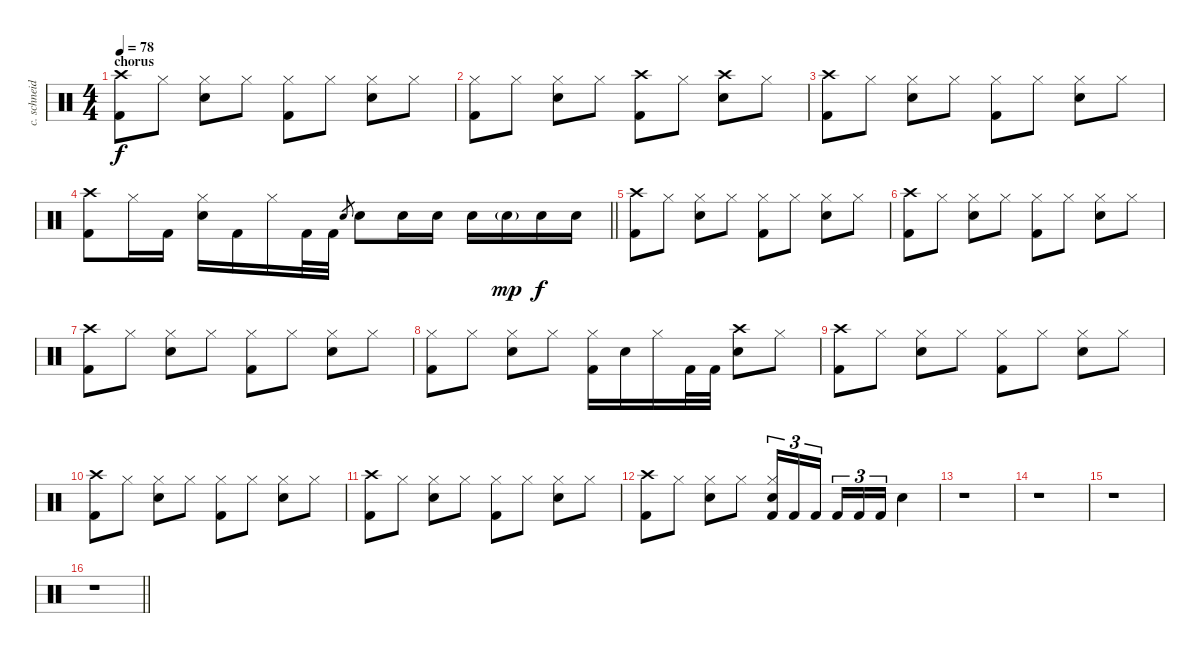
\track ("c. schneider - drums" "c. schneid") {instrument percussion}
\staff {score}
\articulation defaults
\ts (4 4)
\section ("" "chorus")
\tempo 78
\clef neutral
\ks c
("Crash high (hit)" "Kick (hit) 2").8{dy f} "Hi-Hat (closed)".8 ("Hi-Hat (closed)" "Snare (hit) 2").8 "Hi-Hat (closed)".8 ("Hi-Hat (closed)" "Kick (hit) 2").8 "Hi-Hat (closed)".8 ("Hi-Hat (closed)" "Snare (hit) 2").8 "Hi-Hat (closed)".8 |
("Hi-Hat (closed)" "Kick (hit) 2").8 "Hi-Hat (closed)".8 ("Hi-Hat (closed)" "Snare (hit) 2").8 "Hi-Hat (closed)".8 ("Crash high (hit)" "Kick (hit) 2").8 "Hi-Hat (closed)".8 ("Crash high (hit)" "Snare (hit) 2").8 "Hi-Hat (closed)".8 |
("Crash high (hit)" "Kick (hit) 2").8 "Hi-Hat (closed)".8 ("Hi-Hat (closed)" "Snare (hit) 2").8 "Hi-Hat (closed)".8 ("Hi-Hat (closed)" "Kick (hit) 2").8 "Hi-Hat (closed)".8 ("Hi-Hat (closed)" "Snare (hit) 2").8 "Hi-Hat (closed)".8 |
\barLineRight lightlight
("Crash high (hit)" "Kick (hit) 2").8 "Hi-Hat (closed)".16 "Kick (hit) 2".16 ("Hi-Hat (closed)" "Snare (hit) 2").16 "Kick (hit) 2".16 "Hi-Hat (closed)".16 "Kick (hit) 2".32 "Kick (hit) 2".32 "Snare (hit) 2".8{gr} "Snare (hit) 2".8 "Snare (hit) 2".16 "Snare (hit) 2".16 "Snare (hit) 2".16 "Snare (hit) 2"{g}.16{dy mp} "Snare (hit) 2".16{dy f} "Snare (hit) 2".16 |
("Crash high (hit)" "Kick (hit) 2").8 "Hi-Hat (closed)".8 ("Hi-Hat (closed)" "Snare (hit) 2").8 "Hi-Hat (closed)".8 ("Hi-Hat (closed)" "Kick (hit) 2").8 "Hi-Hat (closed)".8 ("Hi-Hat (closed)" "Snare (hit) 2").8 "Hi-Hat (closed)".8 |
("Crash high (hit)" "Kick (hit) 2").8 "Hi-Hat (closed)".8 ("Hi-Hat (closed)" "Snare (hit) 2").8 "Hi-Hat (closed)".8 ("Hi-Hat (closed)" "Kick (hit) 2").8 "Hi-Hat (closed)".8 ("Hi-Hat (closed)" "Snare (hit) 2").8 "Hi-Hat (closed)".8 |
("Crash high (hit)" "Kick (hit) 2").8 "Hi-Hat (closed)".8 ("Hi-Hat (closed)" "Snare (hit) 2").8 "Hi-Hat (closed)".8 ("Hi-Hat (closed)" "Kick (hit) 2").8 "Hi-Hat (closed)".8 ("Hi-Hat (closed)" "Snare (hit) 2").8 "Hi-Hat (closed)".8 |
("Hi-Hat (closed)" "Kick (hit) 2").8 "Hi-Hat (closed)".8 ("Hi-Hat (closed)" "Snare (hit) 2").8 "Hi-Hat (closed)".8 ("Hi-Hat (closed)" "Kick (hit) 2").16 "Snare (hit) 2".16 "Hi-Hat (closed)".16 "Kick (hit) 2".32 "Kick (hit) 2".32 ("Crash high (hit)" "Snare (hit) 2").8 "Hi-Hat (closed)".8 |
("Crash high (hit)" "Kick (hit) 2").8 "Hi-Hat (closed)".8 ("Hi-Hat (closed)" "Snare (hit) 2").8 "Hi-Hat (closed)".8 ("Hi-Hat (closed)" "Kick (hit) 2").8 "Hi-Hat (closed)".8 ("Hi-Hat (closed)" "Snare (hit) 2").8 "Hi-Hat (closed)".8 |
("Crash high (hit)" "Kick (hit) 2").8 "Hi-Hat (closed)".8 ("Hi-Hat (closed)" "Snare (hit) 2").8 "Hi-Hat (closed)".8 ("Hi-Hat (closed)" "Kick (hit) 2").8 "Hi-Hat (closed)".8 ("Hi-Hat (closed)" "Snare (hit) 2").8 "Hi-Hat (closed)".8 |
("Crash high (hit)" "Kick (hit) 2").8 "Hi-Hat (closed)".8 ("Hi-Hat (closed)" "Snare (hit) 2").8 "Hi-Hat (closed)".8 ("Hi-Hat (closed)" "Kick (hit) 2").8 "Hi-Hat (closed)".8 ("Hi-Hat (closed)" "Snare (hit) 2").8 "Hi-Hat (closed)".8 |
("Crash high (hit)" "Kick (hit) 2").8 "Hi-Hat (closed)".8 ("Hi-Hat (closed)" "Snare (hit) 2").8 "Hi-Hat (closed)".8 ("Hi-Hat (closed)" "Snare (hit) 2" "Kick (hit) 2").16{tu (3 2)} "Kick (hit) 2".16{tu (3 2)} "Kick (hit) 2".16{tu (3 2) beam splitsecondary} "Kick (hit) 2".16{tu (3 2)} "Kick (hit) 2".16{tu (3 2)} "Kick (hit) 2".16{tu (3 2)} "Snare (hit) 2".4 |
r.1 |
r.1 |
r.1 |
\barLineRight lightlight
r.1
